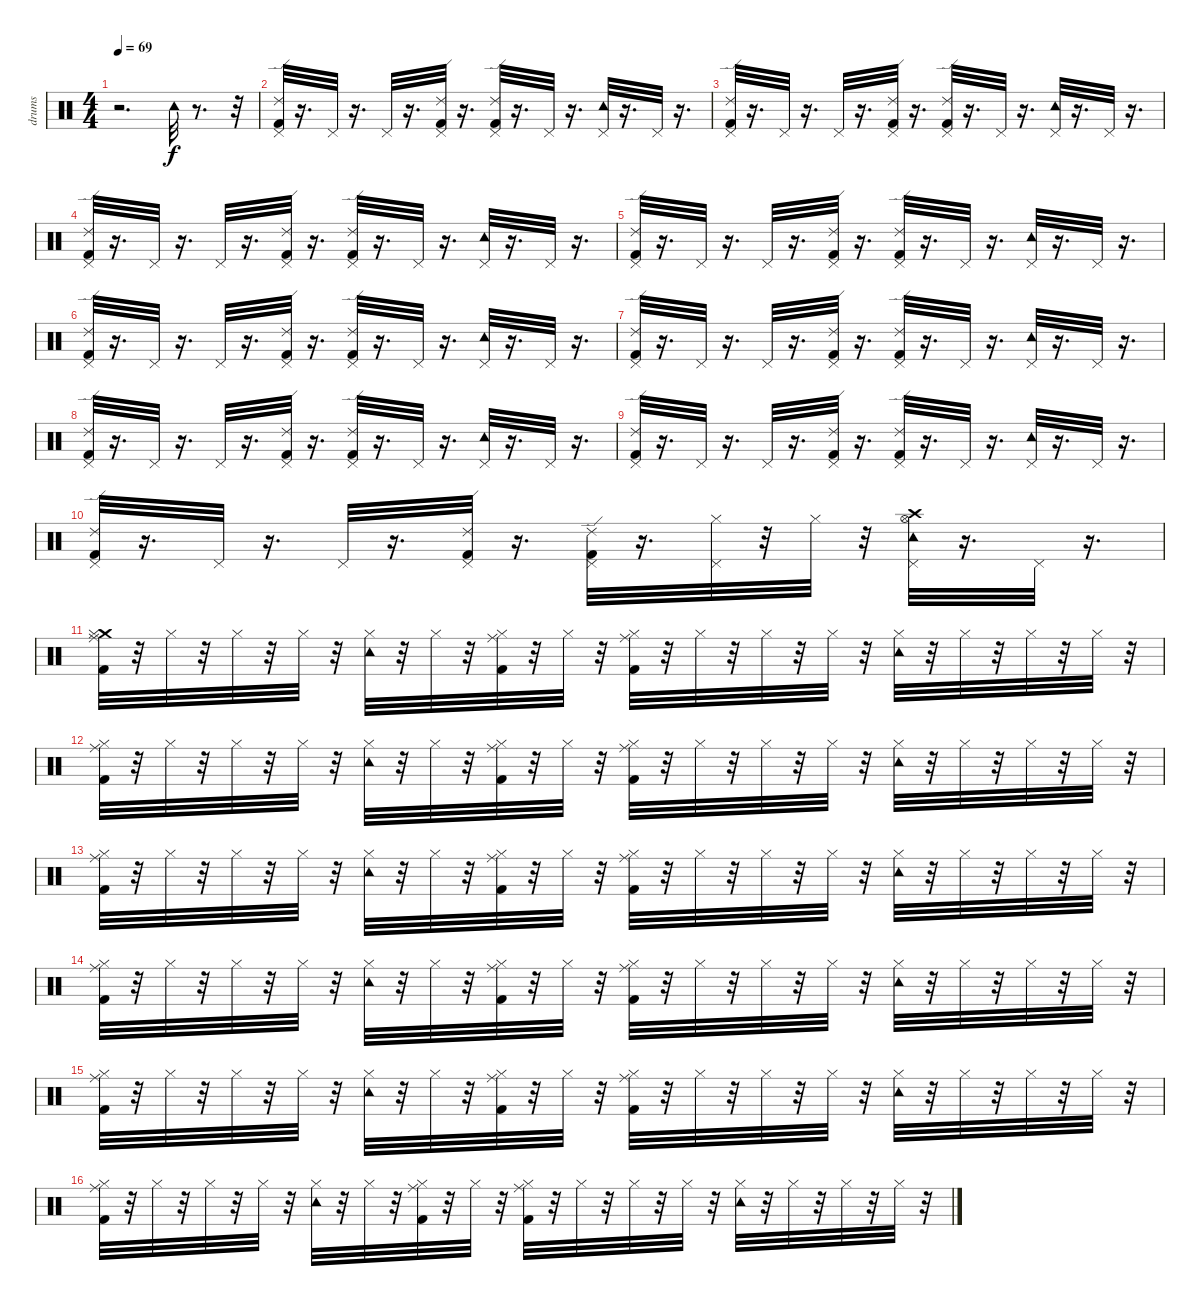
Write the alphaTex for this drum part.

\track ("drums" "drums") {instrument percussion}
\staff {score}
\articulation defaults
\ts (4 4)
\tempo 69
\clef neutral
\ks c
r.2{d dy f} "Tambourine (hit)".32 r.8{d} r.32 |
("Pedal Hi-Hat (hit)" "Kick (hit) 2" "Ride (edge) 2").32 r.16{d} "Pedal Hi-Hat (hit)".32 r.16{d} "Pedal Hi-Hat (hit)".32 r.16{d} ("Pedal Hi-Hat (hit)" "Ride (edge) 2" "Kick (hit) 2").32 r.16{d} ("Pedal Hi-Hat (hit)" "Ride (edge) 2" "Kick (hit) 2").32 r.16{d} "Pedal Hi-Hat (hit)".32 r.16{d} ("Pedal Hi-Hat (hit)" "Tambourine (hit)").32 r.16{d} "Pedal Hi-Hat (hit)".32 r.16{d} |
("Pedal Hi-Hat (hit)" "Kick (hit) 2" "Ride (edge) 2").32 r.16{d} "Pedal Hi-Hat (hit)".32 r.16{d} "Pedal Hi-Hat (hit)".32 r.16{d} ("Pedal Hi-Hat (hit)" "Ride (edge) 2" "Kick (hit) 2").32 r.16{d} ("Pedal Hi-Hat (hit)" "Ride (edge) 2" "Kick (hit) 2").32 r.16{d} "Pedal Hi-Hat (hit)".32 r.16{d} ("Tambourine (hit)" "Pedal Hi-Hat (hit)").32 r.16{d} "Pedal Hi-Hat (hit)".32 r.16{d} |
("Pedal Hi-Hat (hit)" "Kick (hit) 2" "Ride (edge) 2").32 r.16{d} "Pedal Hi-Hat (hit)".32 r.16{d} "Pedal Hi-Hat (hit)".32 r.16{d} ("Pedal Hi-Hat (hit)" "Ride (edge) 2" "Kick (hit) 2").32 r.16{d} ("Pedal Hi-Hat (hit)" "Ride (edge) 2" "Kick (hit) 2").32 r.16{d} "Pedal Hi-Hat (hit)".32 r.16{d} ("Tambourine (hit)" "Pedal Hi-Hat (hit)").32 r.16{d} "Pedal Hi-Hat (hit)".32 r.16{d} |
("Pedal Hi-Hat (hit)" "Kick (hit) 2" "Ride (edge) 2").32 r.16{d} "Pedal Hi-Hat (hit)".32 r.16{d} "Pedal Hi-Hat (hit)".32 r.16{d} ("Pedal Hi-Hat (hit)" "Ride (edge) 2" "Kick (hit) 2").32 r.16{d} ("Pedal Hi-Hat (hit)" "Ride (edge) 2" "Kick (hit) 2").32 r.16{d} "Pedal Hi-Hat (hit)".32 r.16{d} ("Tambourine (hit)" "Pedal Hi-Hat (hit)").32 r.16{d} "Pedal Hi-Hat (hit)".32 r.16{d} |
("Pedal Hi-Hat (hit)" "Kick (hit) 2" "Ride (edge) 2").32 r.16{d} "Pedal Hi-Hat (hit)".32 r.16{d} "Pedal Hi-Hat (hit)".32 r.16{d} ("Pedal Hi-Hat (hit)" "Ride (edge) 2" "Kick (hit) 2").32 r.16{d} ("Pedal Hi-Hat (hit)" "Ride (edge) 2" "Kick (hit) 2").32 r.16{d} "Pedal Hi-Hat (hit)".32 r.16{d} ("Tambourine (hit)" "Pedal Hi-Hat (hit)").32 r.16{d} "Pedal Hi-Hat (hit)".32 r.16{d} |
("Pedal Hi-Hat (hit)" "Kick (hit) 2" "Ride (edge) 2").32 r.16{d} "Pedal Hi-Hat (hit)".32 r.16{d} "Pedal Hi-Hat (hit)".32 r.16{d} ("Pedal Hi-Hat (hit)" "Ride (edge) 2" "Kick (hit) 2").32 r.16{d} ("Pedal Hi-Hat (hit)" "Ride (edge) 2" "Kick (hit) 2").32 r.16{d} "Pedal Hi-Hat (hit)".32 r.16{d} ("Tambourine (hit)" "Pedal Hi-Hat (hit)").32 r.16{d} "Pedal Hi-Hat (hit)".32 r.16{d} |
("Pedal Hi-Hat (hit)" "Kick (hit) 2" "Ride (edge) 2").32 r.16{d} "Pedal Hi-Hat (hit)".32 r.16{d} "Pedal Hi-Hat (hit)".32 r.16{d} ("Pedal Hi-Hat (hit)" "Ride (edge) 2" "Kick (hit) 2").32 r.16{d} ("Pedal Hi-Hat (hit)" "Ride (edge) 2" "Kick (hit) 2").32 r.16{d} "Pedal Hi-Hat (hit)".32 r.16{d} ("Tambourine (hit)" "Pedal Hi-Hat (hit)").32 r.16{d} "Pedal Hi-Hat (hit)".32 r.16{d} |
("Pedal Hi-Hat (hit)" "Kick (hit) 2" "Ride (edge) 2").32 r.16{d} "Pedal Hi-Hat (hit)".32 r.16{d} "Pedal Hi-Hat (hit)".32 r.16{d} ("Pedal Hi-Hat (hit)" "Ride (edge) 2" "Kick (hit) 2").32 r.16{d} ("Pedal Hi-Hat (hit)" "Ride (edge) 2" "Kick (hit) 2").32 r.16{d} "Pedal Hi-Hat (hit)".32 r.16{d} ("Tambourine (hit)" "Pedal Hi-Hat (hit)").32 r.16{d} "Pedal Hi-Hat (hit)".32 r.16{d} |
("Pedal Hi-Hat (hit)" "Kick (hit) 2" "Ride (edge) 2").32 r.16{d} "Pedal Hi-Hat (hit)".32 r.16{d} "Pedal Hi-Hat (hit)".32 r.16{d} ("Pedal Hi-Hat (hit)" "Ride (edge) 2" "Kick (hit) 2").32 r.16{d} ("Pedal Hi-Hat (hit)" "Ride (edge) 2" "Kick (hit) 2").32 r.16{d} ("Hi-Hat (closed)" "Pedal Hi-Hat (hit)").32 r.32 "Hi-Hat (closed)".32 r.32 ("Hi-Hat (open)" "Crash high (hit)" "Tambourine (hit)" "Pedal Hi-Hat (hit)").32 r.16{d} "Pedal Hi-Hat (hit)".32 r.16{d} |
("Crash medium (hit)" "Ride (middle)" "Kick (hit) 2" "Hi-Hat (closed)").32 r.32 "Hi-Hat (closed)".32 r.32 "Hi-Hat (closed)".32 r.32 "Hi-Hat (closed)".32 r.32 ("Tambourine (hit)" "Hi-Hat (closed)").32 r.32 "Hi-Hat (closed)".32 r.32 ("Ride (middle)" "Hi-Hat (closed)" "Kick (hit) 2").32 r.32 "Hi-Hat (closed)".32 r.32 ("Ride (middle)" "Hi-Hat (closed)" "Kick (hit) 2").32 r.32 "Hi-Hat (closed)".32 r.32 "Hi-Hat (closed)".32 r.32 "Hi-Hat (closed)".32 r.32 ("Hi-Hat (closed)" "Tambourine (hit)").32 r.32 "Hi-Hat (closed)".32 r.32 "Hi-Hat (closed)".32 r.32 "Hi-Hat (closed)".32 r.32 |
("Ride (middle)" "Kick (hit) 2" "Hi-Hat (closed)").32 r.32 "Hi-Hat (closed)".32 r.32 "Hi-Hat (closed)".32 r.32 "Hi-Hat (closed)".32 r.32 ("Tambourine (hit)" "Hi-Hat (closed)").32 r.32 "Hi-Hat (closed)".32 r.32 ("Ride (middle)" "Hi-Hat (closed)" "Kick (hit) 2").32 r.32 "Hi-Hat (closed)".32 r.32 ("Ride (middle)" "Hi-Hat (closed)" "Kick (hit) 2").32 r.32 "Hi-Hat (closed)".32 r.32 "Hi-Hat (closed)".32 r.32 "Hi-Hat (closed)".32 r.32 ("Hi-Hat (closed)" "Tambourine (hit)").32 r.32 "Hi-Hat (closed)".32 r.32 "Hi-Hat (closed)".32 r.32 "Hi-Hat (closed)".32 r.32 |
("Ride (middle)" "Kick (hit) 2" "Hi-Hat (closed)").32 r.32 "Hi-Hat (closed)".32 r.32 "Hi-Hat (closed)".32 r.32 "Hi-Hat (closed)".32 r.32 ("Tambourine (hit)" "Hi-Hat (closed)").32 r.32 "Hi-Hat (closed)".32 r.32 ("Ride (middle)" "Hi-Hat (closed)" "Kick (hit) 2").32 r.32 "Hi-Hat (closed)".32 r.32 ("Ride (middle)" "Hi-Hat (closed)" "Kick (hit) 2").32 r.32 "Hi-Hat (closed)".32 r.32 "Hi-Hat (closed)".32 r.32 "Hi-Hat (closed)".32 r.32 ("Hi-Hat (closed)" "Tambourine (hit)").32 r.32 "Hi-Hat (closed)".32 r.32 "Hi-Hat (closed)".32 r.32 "Hi-Hat (closed)".32 r.32 |
("Ride (middle)" "Kick (hit) 2" "Hi-Hat (closed)").32 r.32 "Hi-Hat (closed)".32 r.32 "Hi-Hat (closed)".32 r.32 "Hi-Hat (closed)".32 r.32 ("Tambourine (hit)" "Hi-Hat (closed)").32 r.32 "Hi-Hat (closed)".32 r.32 ("Ride (middle)" "Hi-Hat (closed)" "Kick (hit) 2").32 r.32 "Hi-Hat (closed)".32 r.32 ("Ride (middle)" "Hi-Hat (closed)" "Kick (hit) 2").32 r.32 "Hi-Hat (closed)".32 r.32 "Hi-Hat (closed)".32 r.32 "Hi-Hat (closed)".32 r.32 ("Hi-Hat (closed)" "Tambourine (hit)").32 r.32 "Hi-Hat (closed)".32 r.32 "Hi-Hat (closed)".32 r.32 "Hi-Hat (closed)".32 r.32 |
("Ride (middle)" "Kick (hit) 2" "Hi-Hat (closed)").32 r.32 "Hi-Hat (closed)".32 r.32 "Hi-Hat (closed)".32 r.32 "Hi-Hat (closed)".32 r.32 ("Tambourine (hit)" "Hi-Hat (closed)").32 r.32 "Hi-Hat (closed)".32 r.32 ("Ride (middle)" "Hi-Hat (closed)" "Kick (hit) 2").32 r.32 "Hi-Hat (closed)".32 r.32 ("Ride (middle)" "Hi-Hat (closed)" "Kick (hit) 2").32 r.32 "Hi-Hat (closed)".32 r.32 "Hi-Hat (closed)".32 r.32 "Hi-Hat (closed)".32 r.32 ("Hi-Hat (closed)" "Tambourine (hit)").32 r.32 "Hi-Hat (closed)".32 r.32 "Hi-Hat (closed)".32 r.32 "Hi-Hat (closed)".32 r.32 |
("Ride (middle)" "Kick (hit) 2" "Hi-Hat (closed)").32 r.32 "Hi-Hat (closed)".32 r.32 "Hi-Hat (closed)".32 r.32 "Hi-Hat (closed)".32 r.32 ("Tambourine (hit)" "Hi-Hat (closed)").32 r.32 "Hi-Hat (closed)".32 r.32 ("Ride (middle)" "Hi-Hat (closed)" "Kick (hit) 2").32 r.32 "Hi-Hat (closed)".32 r.32 ("Ride (middle)" "Hi-Hat (closed)" "Kick (hit) 2").32 r.32 "Hi-Hat (closed)".32 r.32 "Hi-Hat (closed)".32 r.32 "Hi-Hat (closed)".32 r.32 ("Hi-Hat (closed)" "Tambourine (hit)").32 r.32 "Hi-Hat (closed)".32 r.32 "Hi-Hat (closed)".32 r.32 "Hi-Hat (closed)".32 r.32
